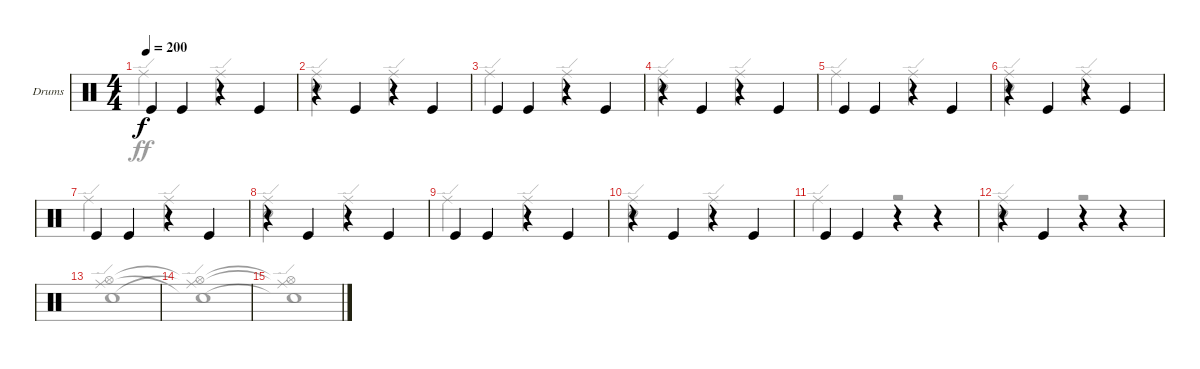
\defaultSystemsLayout 4
\bracketExtendMode groupsimilarinstruments
\firstSystemTrackNameOrientation horizontal
\otherSystemsTrackNameOrientation horizontal
\track ("Drum" "Drums") {instrument percussion}
\staff {score}
\articulation defaults
\voice
\ts (4 4)
\tempo 200
\clef neutral
\ks c "Kick (hit)".4{dy f} "Kick (hit)".4
r.4 "Kick (hit)".4 |
r.4 "Kick (hit)".4 r.4 "Kick (hit)".4 |
"Kick (hit)".4 "Kick (hit)".4 r.4 "Kick (hit)".4 |
r.4 "Kick (hit)".4 r.4 "Kick (hit)".4 |
"Kick (hit)".4 "Kick (hit)".4 r.4 "Kick (hit)".4 |
r.4 "Kick (hit)".4 r.4 "Kick (hit)".4 |
"Kick (hit)".4 "Kick (hit)".4 r.4 "Kick (hit)".4 |
r.4 "Kick (hit)".4 r.4 "Kick (hit)".4 |
"Kick (hit)".4 "Kick (hit)".4 r.4 "Kick (hit)".4 |
r.4 "Kick (hit)".4 r.4 "Kick (hit)".4 |
"Kick (hit)".4 "Kick (hit)".4 r.4 r.4 |
r.4 "Kick (hit)".4 r.4 r.4 |
|
|
|
\voice
\clef neutral
\ottava regular
\simile none
\ks c "Ride (edge)".2{dy ff} "Ride (edge)".2
|
("Snare (hit) 2" "Ride (edge)").2 "Ride (edge)".2 |
"Ride (edge)".2 "Ride (edge)".2 |
("Snare (hit) 2" "Ride (edge)").2 "Ride (edge)".2 |
"Ride (edge)".2 "Ride (edge)".2 |
("Snare (hit) 2" "Ride (edge)").2 "Ride (edge)".2 |
"Ride (edge)".2 "Ride (edge)".2 |
("Snare (hit) 2" "Ride (edge)").2 "Ride (edge)".2 |
"Ride (edge)".2 "Ride (edge)".2 |
("Snare (hit) 2" "Ride (edge)").2 "Ride (edge)".2 |
"Ride (edge)".2 r.2 |
("Snare (hit) 2" "Ride (edge)").2 r.2 |
("Ride (edge)" "Snare (hit) 2" "Hi-Hat (open)").1 |
("Snare (hit) 2"{t} "Ride (edge)"{t} "Hi-Hat (open)"{t}).1 |
("Snare (hit) 2"{t} "Ride (edge)"{t} "Hi-Hat (open)"{t}).1 |
